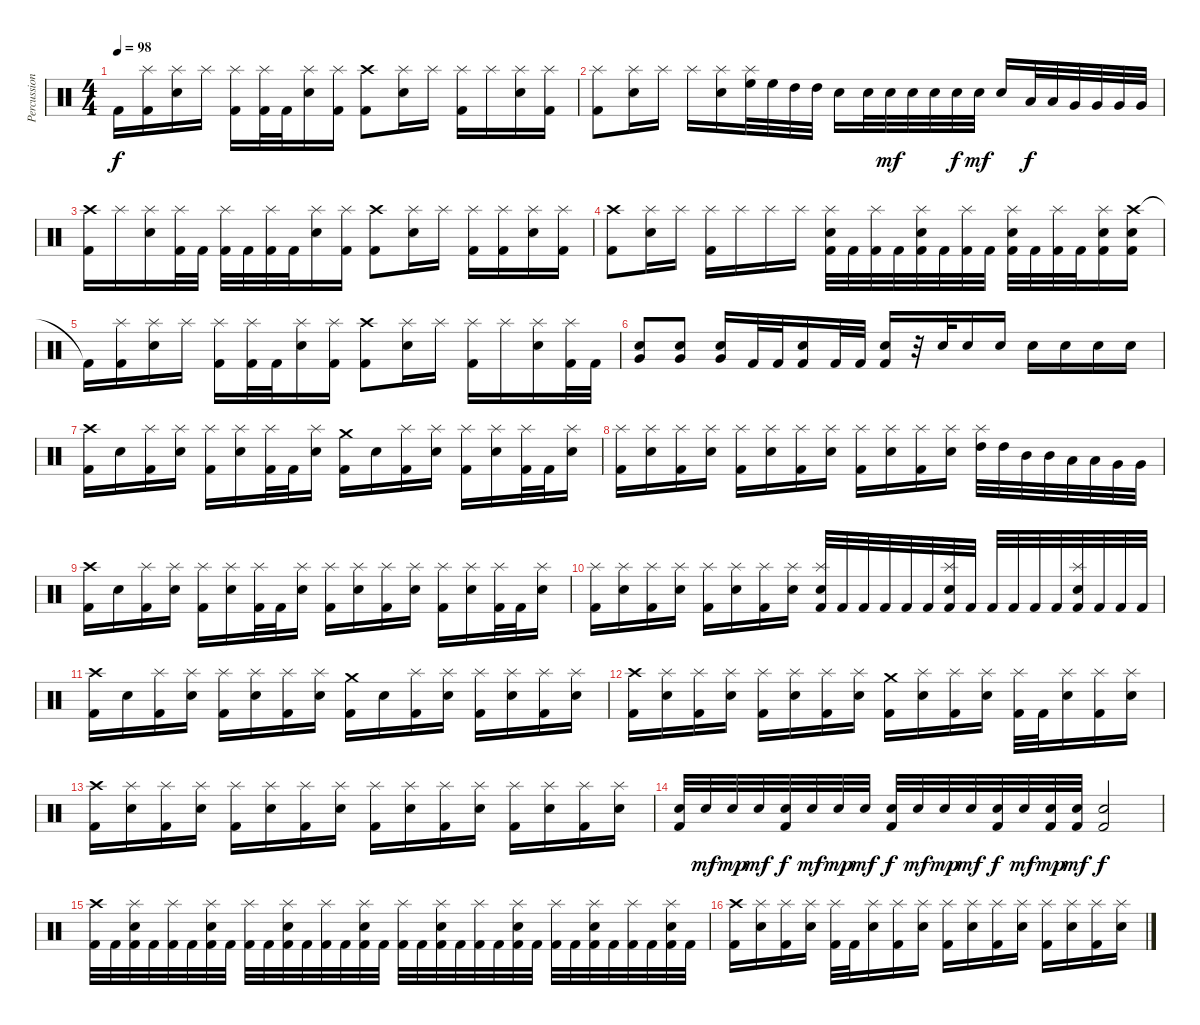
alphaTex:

\track ("Percussion" "Percussion") {instrument percussion}
\staff {score}
\articulation defaults
\ts (4 4)
\tempo 98
\clef neutral
\ks c "Kick (hit) 2"{t}.16{dy f}
("Splash (hit)" "Kick (hit) 2").16 ("Splash (hit)" "Snare (hit) 2").16 "Splash (hit)".16 ("Splash (hit)" "Kick (hit) 2").16 ("Splash (hit)" "Kick (hit) 2").32 "Kick (hit) 2".32 ("Splash (hit)" "Snare (hit) 2").16 ("Splash (hit)" "Kick (hit) 2").16 ("Crash high (hit)" "Kick (hit) 2").8 ("Splash (hit)" "Snare (hit) 2").16 "Splash (hit)".16 ("Splash (hit)" "Kick (hit) 2").16 "Splash (hit)".16 ("Splash (hit)" "Snare (hit) 2").16 ("Splash (hit)" "Kick (hit) 2").16 |
("Splash (hit)" "Kick (hit) 2").8 ("Splash (hit)" "Snare (hit) 2").16 "Splash (hit)".16 "Splash (hit)".16 ("Splash (hit)" "Snare (hit) 2").16 ("Splash (hit)" "High Floor Tom (hit)").32 "High Floor Tom (hit)".32 "High Tom (hit)".32 "High Tom (hit)".32 "Snare (hit) 2".16 "Snare (hit) 2".32 "Snare (hit) 2".32{dy mf} "Snare (hit) 2".32 "Snare (hit) 2".32 "Snare (hit) 2".32{dy f} "Snare (hit) 2".32{dy mf} "Snare (hit) 2".16 "Low Tom (hit)".32{dy f} "Low Tom (hit)".32 "Very Low Tom (hit)".32 "Very Low Tom (hit)".32 "Very Low Tom (hit)".32 "Very Low Tom (hit)".32 |
("Crash high (hit)" "Kick (hit) 2").16 "Splash (hit)".16 ("Splash (hit)" "Snare (hit) 2").16 ("Splash (hit)" "Kick (hit) 2").32 "Kick (hit) 2".32 ("Splash (hit)" "Kick (hit) 2").32 "Kick (hit) 2".32 ("Splash (hit)" "Kick (hit) 2").32 "Kick (hit) 2".32 ("Splash (hit)" "Snare (hit) 2").16 ("Splash (hit)" "Kick (hit) 2").16 ("Crash high (hit)" "Kick (hit) 2").8 ("Splash (hit)" "Snare (hit) 2").16 "Splash (hit)".16 ("Splash (hit)" "Kick (hit) 2").16 ("Splash (hit)" "Kick (hit) 2").16 ("Splash (hit)" "Snare (hit) 2").16 ("Splash (hit)" "Kick (hit) 2").16 |
("Crash high (hit)" "Kick (hit) 2").8 ("Splash (hit)" "Snare (hit) 2").16 "Splash (hit)".16 ("Splash (hit)" "Kick (hit) 2").16 "Splash (hit)".16 "Splash (hit)".16 "Splash (hit)".16 ("Splash (hit)" "Snare (hit) 2" "Kick (hit) 2").32 "Kick (hit) 2".32 ("Splash (hit)" "Kick (hit) 2").32 "Kick (hit) 2".32 ("Splash (hit)" "Snare (hit) 2" "Kick (hit) 2").32 "Kick (hit) 2".32 ("Splash (hit)" "Kick (hit) 2").32 "Kick (hit) 2".32 ("Splash (hit)" "Snare (hit) 2" "Kick (hit) 2").32 "Kick (hit) 2".32 ("Splash (hit)" "Kick (hit) 2").32 "Kick (hit) 2".32 ("Splash (hit)" "Snare (hit) 2" "Kick (hit) 2").16 ("Crash high (hit)" "Snare (hit) 2" "Kick (hit) 2").16 |
"Kick (hit) 2"{t}.16 ("Splash (hit)" "Kick (hit) 2").16 ("Splash (hit)" "Snare (hit) 2").16 "Splash (hit)".16 ("Splash (hit)" "Kick (hit) 2").16 ("Splash (hit)" "Kick (hit) 2").32 "Kick (hit) 2".32 ("Splash (hit)" "Snare (hit) 2").16 ("Splash (hit)" "Kick (hit) 2").16 ("Crash high (hit)" "Kick (hit) 2").8 ("Splash (hit)" "Snare (hit) 2").16 "Splash (hit)".16 ("Splash (hit)" "Kick (hit) 2").16 "Splash (hit)".16 ("Splash (hit)" "Snare (hit) 2").16 ("Splash (hit)" "Kick (hit) 2").32 "Kick (hit) 2".32 |
("Snare (hit) 2" "Very Low Tom (hit)").8 ("Snare (hit) 2" "Very Low Tom (hit)").8 ("Snare (hit) 2" "Very Low Tom (hit)").16 "Kick (hit) 2".32 "Kick (hit) 2".32 ("Snare (hit) 2" "Kick (hit) 2").16 "Kick (hit) 2".32 "Kick (hit) 2".32 ("Snare (hit) 2" "Kick (hit) 2").16 r.32 "Snare (hit) 2".32 "Snare (hit) 2".16 "Snare (hit) 2".16 "Snare (hit) 2".16 "Snare (hit) 2".16 "Snare (hit) 2".16 "Snare (hit) 2".16 |
("Crash high (hit)" "Kick (hit) 2").16 "Snare (hit) 2".16 ("Splash (hit)" "Kick (hit) 2").16 ("Splash (hit)" "Snare (hit) 2").16 ("Splash (hit)" "Kick (hit) 2").16 ("Splash (hit)" "Snare (hit) 2").16 ("Splash (hit)" "Kick (hit) 2").32 "Kick (hit) 2".32 ("Splash (hit)" "Snare (hit) 2").16 ("Crash medium (hit)" "Kick (hit) 2").16 "Snare (hit) 2".16 ("Splash (hit)" "Kick (hit) 2").16 ("Splash (hit)" "Snare (hit) 2").16 ("Splash (hit)" "Kick (hit) 2").16 ("Splash (hit)" "Snare (hit) 2").16 ("Splash (hit)" "Kick (hit) 2").32 "Kick (hit) 2".32 ("Splash (hit)" "Snare (hit) 2").16 |
("Splash (hit)" "Kick (hit) 2").16 ("Splash (hit)" "Snare (hit) 2").16 ("Splash (hit)" "Kick (hit) 2").16 ("Splash (hit)" "Snare (hit) 2").16 ("Splash (hit)" "Kick (hit) 2").16 ("Splash (hit)" "Snare (hit) 2").16 ("Splash (hit)" "Kick (hit) 2").16 ("Splash (hit)" "Snare (hit) 2").16 ("Splash (hit)" "Kick (hit) 2").16 ("Splash (hit)" "Snare (hit) 2").16 ("Splash (hit)" "Kick (hit) 2").16 ("Splash (hit)" "Snare (hit) 2").16 ("Splash (hit)" "High Tom (hit)").32 "High Tom (hit)".32 "Mid Tom (hit)".32 "Mid Tom (hit)".32 "Low Tom (hit)".32 "Low Tom (hit)".32 "Very Low Tom (hit)".32 "Very Low Tom (hit)".32 |
("Crash high (hit)" "Kick (hit) 2").16 "Snare (hit) 2".16 ("Splash (hit)" "Kick (hit) 2").16 ("Splash (hit)" "Snare (hit) 2").16 ("Splash (hit)" "Kick (hit) 2").16 ("Splash (hit)" "Snare (hit) 2").16 ("Splash (hit)" "Kick (hit) 2").32 "Kick (hit) 2".32 ("Splash (hit)" "Snare (hit) 2").16 ("Splash (hit)" "Kick (hit) 2").16 ("Splash (hit)" "Snare (hit) 2").16 ("Splash (hit)" "Kick (hit) 2").16 ("Splash (hit)" "Snare (hit) 2").16 ("Splash (hit)" "Kick (hit) 2").16 ("Splash (hit)" "Snare (hit) 2").16 ("Splash (hit)" "Kick (hit) 2").32 "Kick (hit) 2".32 ("Splash (hit)" "Snare (hit) 2").16 |
("Splash (hit)" "Kick (hit) 2").16 ("Splash (hit)" "Snare (hit) 2").16 ("Splash (hit)" "Kick (hit) 2").16 ("Splash (hit)" "Snare (hit) 2").16 ("Splash (hit)" "Kick (hit) 2").16 ("Splash (hit)" "Snare (hit) 2").16 ("Splash (hit)" "Kick (hit) 2").16 ("Splash (hit)" "Snare (hit) 2").16 ("Splash (hit)" "Snare (hit) 2" "Kick (hit) 2").32 "Kick (hit) 2".32 "Kick (hit) 2".32 "Kick (hit) 2".32 "Kick (hit) 2".32 "Kick (hit) 2".32 ("Splash (hit)" "Snare (hit) 2" "Kick (hit) 2").32 "Kick (hit) 2".32 "Kick (hit) 2".32 "Kick (hit) 2".32 "Kick (hit) 2".32 "Kick (hit) 2".32 ("Splash (hit)" "Snare (hit) 2" "Kick (hit) 2").32 "Kick (hit) 2".32 "Kick (hit) 2".32 "Kick (hit) 2".32 |
("Crash high (hit)" "Kick (hit) 2").16 "Snare (hit) 2".16 ("Splash (hit)" "Kick (hit) 2").16 ("Splash (hit)" "Snare (hit) 2").16 ("Splash (hit)" "Kick (hit) 2").16 ("Splash (hit)" "Snare (hit) 2").16 ("Splash (hit)" "Kick (hit) 2").16 ("Splash (hit)" "Snare (hit) 2").16 ("Crash medium (hit)" "Kick (hit) 2").16 "Snare (hit) 2".16 ("Splash (hit)" "Kick (hit) 2").16 ("Splash (hit)" "Snare (hit) 2").16 ("Splash (hit)" "Kick (hit) 2").16 ("Splash (hit)" "Snare (hit) 2").16 ("Splash (hit)" "Kick (hit) 2").16 ("Splash (hit)" "Snare (hit) 2").16 |
("Crash high (hit)" "Kick (hit) 2").16 ("Splash (hit)" "Snare (hit) 2").16 ("Splash (hit)" "Kick (hit) 2").16 ("Splash (hit)" "Snare (hit) 2").16 ("Splash (hit)" "Kick (hit) 2").16 ("Splash (hit)" "Snare (hit) 2").16 ("Splash (hit)" "Kick (hit) 2").16 ("Splash (hit)" "Snare (hit) 2").16 ("Crash medium (hit)" "Kick (hit) 2").16 ("Splash (hit)" "Snare (hit) 2").16 ("Splash (hit)" "Kick (hit) 2").16 ("Splash (hit)" "Snare (hit) 2").16 ("Splash (hit)" "Kick (hit) 2").32 "Kick (hit) 2".32 ("Splash (hit)" "Snare (hit) 2").16 ("Splash (hit)" "Kick (hit) 2").16 ("Splash (hit)" "Snare (hit) 2").16 |
("Crash high (hit)" "Kick (hit) 2").16 ("Splash (hit)" "Snare (hit) 2").16 ("Splash (hit)" "Kick (hit) 2").16 ("Splash (hit)" "Snare (hit) 2").16 ("Splash (hit)" "Kick (hit) 2").16 ("Splash (hit)" "Snare (hit) 2").16 ("Splash (hit)" "Kick (hit) 2").16 ("Splash (hit)" "Snare (hit) 2").16 ("Splash (hit)" "Kick (hit) 2").16 ("Splash (hit)" "Snare (hit) 2").16 ("Splash (hit)" "Kick (hit) 2").16 ("Splash (hit)" "Snare (hit) 2").16 ("Splash (hit)" "Kick (hit) 2").16 ("Splash (hit)" "Snare (hit) 2").16 ("Splash (hit)" "Kick (hit) 2").16 ("Splash (hit)" "Snare (hit) 2").16 |
("Snare (hit) 2" "Kick (hit) 2").32 "Snare (hit) 2".32{dy mf} "Snare (hit) 2".32{dy mp} "Snare (hit) 2".32{dy mf} ("Snare (hit) 2" "Kick (hit) 2").32{dy f} "Snare (hit) 2".32{dy mf} "Snare (hit) 2".32{dy mp} "Snare (hit) 2".32{dy mf} ("Snare (hit) 2" "Kick (hit) 2").32{dy f} "Snare (hit) 2".32{dy mf} "Snare (hit) 2".32{dy mp} "Snare (hit) 2".32{dy mf} ("Snare (hit) 2" "Kick (hit) 2").32{dy f} "Snare (hit) 2".32{dy mf} ("Snare (hit) 2" "Kick (hit) 2").32{dy mp} ("Snare (hit) 2" "Kick (hit) 2").32{dy mf} ("Snare (hit) 2" "Kick (hit) 2").2{dy f} |
("Crash high (hit)" "Kick (hit) 2").32 "Kick (hit) 2".32 ("Splash (hit)" "Snare (hit) 2" "Kick (hit) 2").32 "Kick (hit) 2".32 ("Splash (hit)" "Kick (hit) 2").32 "Kick (hit) 2".32 ("Splash (hit)" "Snare (hit) 2" "Kick (hit) 2").32 "Kick (hit) 2".32 ("Splash (hit)" "Kick (hit) 2").32 "Kick (hit) 2".32 ("Splash (hit)" "Snare (hit) 2" "Kick (hit) 2").32 "Kick (hit) 2".32 ("Splash (hit)" "Kick (hit) 2").32 "Kick (hit) 2".32 ("Splash (hit)" "Snare (hit) 2" "Kick (hit) 2").32 "Kick (hit) 2".32 ("Splash (hit)" "Kick (hit) 2").32 "Kick (hit) 2".32 ("Splash (hit)" "Snare (hit) 2" "Kick (hit) 2").32 "Kick (hit) 2".32 ("Splash (hit)" "Kick (hit) 2").32 "Kick (hit) 2".32 ("Splash (hit)" "Snare (hit) 2" "Kick (hit) 2").32 "Kick (hit) 2".32 ("Splash (hit)" "Kick (hit) 2").32 "Kick (hit) 2".32 ("Splash (hit)" "Snare (hit) 2" "Kick (hit) 2").32 "Kick (hit) 2".32 ("Splash (hit)" "Kick (hit) 2").32 "Kick (hit) 2".32 ("Splash (hit)" "Snare (hit) 2" "Kick (hit) 2").32 "Kick (hit) 2".32 |
("Crash high (hit)" "Kick (hit) 2").16 ("Splash (hit)" "Snare (hit) 2").16 ("Splash (hit)" "Kick (hit) 2").16 ("Splash (hit)" "Snare (hit) 2").16 ("Splash (hit)" "Kick (hit) 2").32 "Kick (hit) 2".32 ("Splash (hit)" "Snare (hit) 2").16 ("Splash (hit)" "Kick (hit) 2").16 ("Splash (hit)" "Snare (hit) 2").16 ("Splash (hit)" "Kick (hit) 2").16 ("Splash (hit)" "Snare (hit) 2").16 ("Splash (hit)" "Kick (hit) 2").16 ("Splash (hit)" "Snare (hit) 2").16 ("Splash (hit)" "Kick (hit) 2").16 ("Splash (hit)" "Snare (hit) 2").16 ("Splash (hit)" "Kick (hit) 2").16 ("Splash (hit)" "Snare (hit) 2").16
